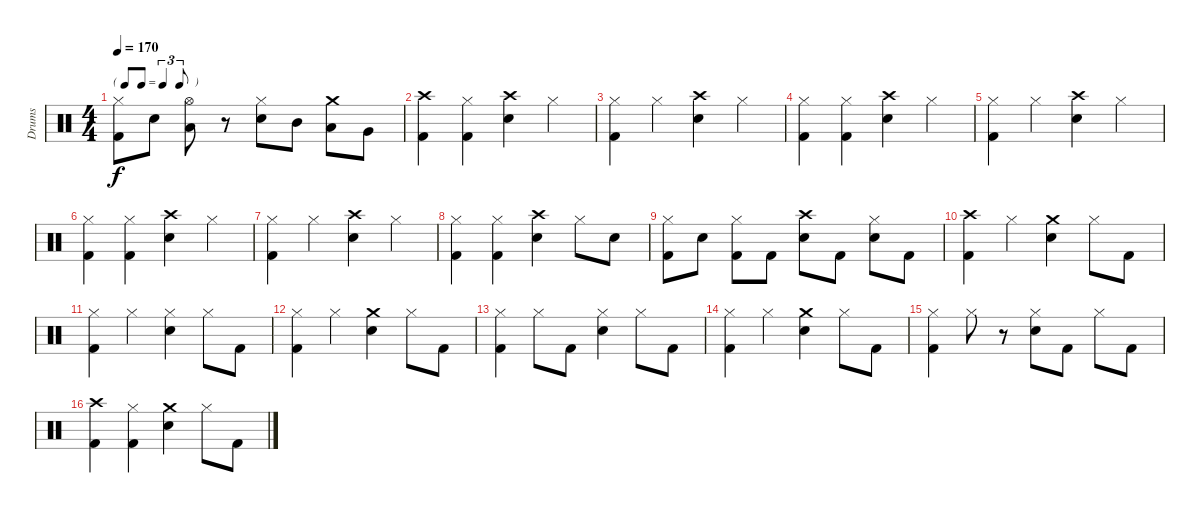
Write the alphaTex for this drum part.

\track ("Drums" "Drums") {instrument percussion}
\staff {score}
\articulation defaults
\ts (4 4)
\tf triplet8th
\tempo 170
\clef neutral
\ks c
("Hi-Hat (closed)" "Kick (hit) 2").8{dy f} "Snare (hit) 2".8 ("Hi-Hat (open)" "Low Tom (hit)").8 r.8 ("Hi-Hat (closed)" "Snare (hit) 2").8 "Mid Tom (hit)".8 ("Crash medium (hit)" "Low Tom (hit)").8 "Very Low Tom (hit)".8 |
("Crash high (hit)" "Kick (hit) 2").4 ("Hi-Hat (closed)" "Kick (hit) 2").4 ("Crash high (hit)" "Snare (hit) 2").4 "Hi-Hat (closed)".4 |
("Hi-Hat (closed)" "Kick (hit) 2").4 "Hi-Hat (closed)".4 ("Crash high (hit)" "Snare (hit) 2").4 "Hi-Hat (closed)".4 |
("Hi-Hat (closed)" "Kick (hit) 2").4 ("Hi-Hat (closed)" "Kick (hit) 2").4 ("Crash high (hit)" "Snare (hit) 2").4 "Hi-Hat (closed)".4 |
("Hi-Hat (closed)" "Kick (hit) 2").4 "Hi-Hat (closed)".4 ("Crash high (hit)" "Snare (hit) 2").4 "Hi-Hat (closed)".4 |
("Hi-Hat (closed)" "Kick (hit) 2").4 ("Hi-Hat (closed)" "Kick (hit) 2").4 ("Crash high (hit)" "Snare (hit) 2").4 "Hi-Hat (closed)".4 |
("Hi-Hat (closed)" "Kick (hit) 2").4 "Hi-Hat (closed)".4 ("Crash high (hit)" "Snare (hit) 2").4 "Hi-Hat (closed)".4 |
("Hi-Hat (closed)" "Kick (hit) 2").4 ("Hi-Hat (closed)" "Kick (hit) 2").4 ("Crash high (hit)" "Snare (hit) 2").4 "Hi-Hat (closed)".8 "Snare (hit) 2".8 |
("Hi-Hat (closed)" "Kick (hit) 2").8 "Snare (hit) 2".8 ("Hi-Hat (closed)" "Kick (hit) 2").8 "Kick (hit) 2".8 ("Crash high (hit)" "Snare (hit) 2").8 "Kick (hit) 2".8 ("Hi-Hat (closed)" "Snare (hit) 2").8 "Kick (hit) 2".8 |
("Crash high (hit)" "Kick (hit) 2").4 "Hi-Hat (closed)".4 ("Crash medium (hit)" "Snare (hit) 2").4 "Hi-Hat (closed)".8 "Kick (hit) 2".8 |
("Hi-Hat (closed)" "Kick (hit) 2").4 "Hi-Hat (closed)".4 ("Hi-Hat (closed)" "Snare (hit) 2").4 "Hi-Hat (closed)".8 "Kick (hit) 2".8 |
("Hi-Hat (closed)" "Kick (hit) 2").4 "Hi-Hat (closed)".4 ("Crash medium (hit)" "Snare (hit) 2").4 "Hi-Hat (closed)".8 "Kick (hit) 2".8 |
("Hi-Hat (closed)" "Kick (hit) 2").4 "Hi-Hat (closed)".8 "Kick (hit) 2".8 ("Hi-Hat (closed)" "Snare (hit) 2").4 "Hi-Hat (closed)".8 "Kick (hit) 2".8 |
("Hi-Hat (closed)" "Kick (hit) 2").4 "Hi-Hat (closed)".4 ("Crash medium (hit)" "Snare (hit) 2").4 "Hi-Hat (closed)".8 "Kick (hit) 2".8 |
("Hi-Hat (closed)" "Kick (hit) 2").4 "Hi-Hat (closed)".8 r.8 ("Hi-Hat (closed)" "Snare (hit) 2").8 "Kick (hit) 2".8 "Hi-Hat (closed)".8 "Kick (hit) 2".8 |
("Crash high (hit)" "Kick (hit) 2").4 ("Hi-Hat (closed)" "Kick (hit) 2").4 ("Crash medium (hit)" "Snare (hit) 2").4 "Hi-Hat (closed)".8 "Kick (hit) 2".8
